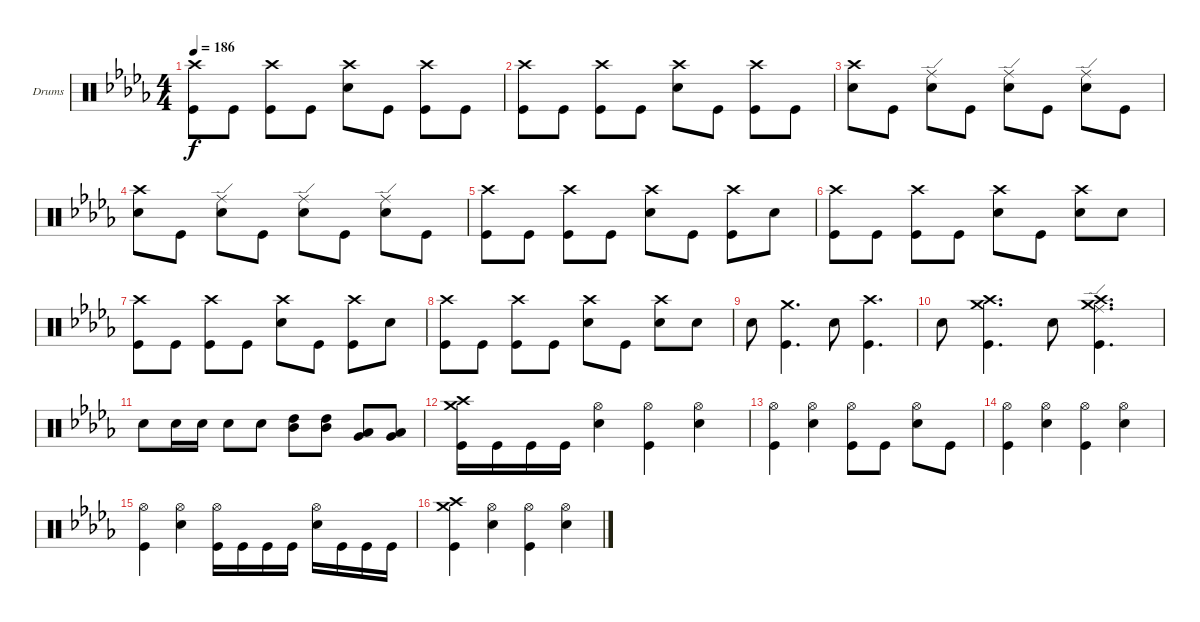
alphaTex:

\bracketExtendMode groupsimilarinstruments
\firstSystemTrackNameOrientation horizontal
\otherSystemsTrackNameOrientation horizontal
\track ("Drumkit" "Drums") {instrument percussion}
\staff {score}
\articulation defaults
\ts (4 4)
\tempo 186
\clef neutral
\ks db
("Crash high (hit)" "Kick (hit)").8{dy f} "Kick (hit)".8 ("Crash high (hit)" "Kick (hit)").8 "Kick (hit)".8 ("Crash high (hit)" "Snare (hit) 2").8 "Kick (hit)".8 ("Crash high (hit)" "Kick (hit)").8 "Kick (hit)".8 |
("Crash high (hit)" "Kick (hit)").8 "Kick (hit)".8 ("Crash high (hit)" "Kick (hit)").8 "Kick (hit)".8 ("Crash high (hit)" "Snare (hit) 2").8 "Kick (hit)".8 ("Crash high (hit)" "Kick (hit)").8 "Kick (hit)".8 |
("Crash high (hit)" "Snare (hit) 2").8 "Kick (hit)".8 ("Ride (edge)" "Snare (hit) 2").8 "Kick (hit)".8 ("Ride (edge)" "Snare (hit) 2").8 "Kick (hit)".8 ("Ride (edge)" "Snare (hit) 2").8 "Kick (hit)".8 |
("Crash high (hit)" "Snare (hit) 2").8 "Kick (hit)".8 ("Ride (edge)" "Snare (hit) 2").8 "Kick (hit)".8 ("Ride (edge)" "Snare (hit) 2").8 "Kick (hit)".8 ("Ride (edge)" "Snare (hit) 2").8 "Kick (hit)".8 |
("Crash high (hit)" "Kick (hit)").8 "Kick (hit)".8 ("Crash high (hit)" "Kick (hit)").8 "Kick (hit)".8 ("Crash high (hit)" "Snare (hit) 2").8 "Kick (hit)".8 ("Crash high (hit)" "Kick (hit)").8 "Snare (hit) 2".8 |
("Crash high (hit)" "Kick (hit)").8 "Kick (hit)".8 ("Crash high (hit)" "Kick (hit)").8 "Kick (hit)".8 ("Crash high (hit)" "Snare (hit) 2").8 "Kick (hit)".8 ("Crash high (hit)" "Snare (hit) 2").8 "Snare (hit) 2".8 |
("Crash high (hit)" "Kick (hit)").8 "Kick (hit)".8 ("Crash high (hit)" "Kick (hit)").8 "Kick (hit)".8 ("Crash high (hit)" "Snare (hit) 2").8 "Kick (hit)".8 ("Crash high (hit)" "Kick (hit)").8 "Snare (hit) 2".8 |
("Crash high (hit)" "Kick (hit)").8 "Kick (hit)".8 ("Crash high (hit)" "Kick (hit)").8 "Kick (hit)".8 ("Crash high (hit)" "Snare (hit) 2").8 "Kick (hit)".8 ("Crash high (hit)" "Snare (hit) 2").8 "Snare (hit) 2".8 |
"Snare (hit) 2".8 ("Crash medium (hit)" "Kick (hit)").4{d} "Snare (hit) 2".8 ("Crash high (hit)" "Kick (hit)").4{d} |
"Snare (hit) 2".8 ("Crash high (hit)" "Crash medium (hit)" "Kick (hit)").4{d} "Snare (hit) 2".8 ("Crash high (hit)" "Crash medium (hit)" "Ride (edge)" "Kick (hit)").4{d} |
"Snare (hit) 2".8 "Snare (hit) 2".16 "Snare (hit) 2".16 "Snare (hit) 2".8 "Snare (hit) 2".8 ("High Tom (hit)" "Mid Tom (hit)").8 ("High Tom (hit)" "Mid Tom (hit)").8 ("Low Tom (hit)" "Very Low Tom (hit)").8 ("Low Tom (hit)" "Very Low Tom (hit)").8 |
("Crash high (hit)" "Crash medium (hit)" "Kick (hit)").16 "Kick (hit)".16 "Kick (hit)".16 "Kick (hit)".16 ("Hi-Hat (open)" "Snare (hit) 2").4 ("Hi-Hat (open)" "Kick (hit)").4 ("Hi-Hat (open)" "Snare (hit) 2").4 |
("Hi-Hat (open)" "Kick (hit)").4 ("Hi-Hat (open)" "Snare (hit) 2").4 ("Hi-Hat (open)" "Kick (hit)").8 "Kick (hit)".8 ("Hi-Hat (open)" "Snare (hit) 2").8 "Kick (hit)".8 |
("Hi-Hat (open)" "Kick (hit)").4 ("Hi-Hat (open)" "Snare (hit) 2").4 ("Hi-Hat (open)" "Kick (hit)").4 ("Hi-Hat (open)" "Snare (hit) 2").4 |
("Hi-Hat (open)" "Kick (hit)").4 ("Hi-Hat (open)" "Snare (hit) 2").4 ("Hi-Hat (open)" "Kick (hit)").16 "Kick (hit)".16 "Kick (hit)".16 "Kick (hit)".16 ("Hi-Hat (open)" "Snare (hit) 2").16 "Kick (hit)".16 "Kick (hit)".16 "Kick (hit)".16 |
("Crash high (hit)" "Crash medium (hit)" "Kick (hit)").4 ("Hi-Hat (open)" "Snare (hit) 2").4 ("Hi-Hat (open)" "Kick (hit)").4 ("Hi-Hat (open)" "Snare (hit) 2").4
